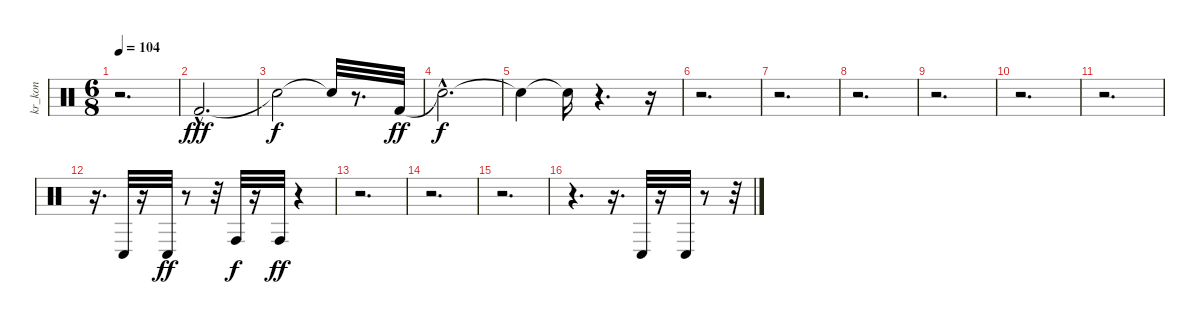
\track ("kr_kon" "kr_kon") {instrument percussion}
\staff {score}
\articulation defaults
\ts (6 8)
\tempo 104
\clef neutral
\ks c
r.2{d dy fff} |
"Kick (hit) 2"{hac}.2{d} |
"Snare (hit)"{t}.2{dy f} "Snare (hit)"{t}.32 r.8{d} "Kick (hit) 2".32{dy ff} |
"Snare (hit)"{hac t}.2{d dy f} |
"Snare (hit)"{t}.4 "Snare (hit)"{t}.16 r.4{d} r.16 |
r.2{d} |
r.2{d} |
r.2{d} |
r.2{d} |
r.2{d} |
r.2{d} |
r.16{d} "Conga low (hit)".32 r.16 "Conga low (hit)".32{dy ff} r.8 r.32 "Conga high (hit)".32{dy f} r.16 "Conga high (hit)".32{dy ff} r.4 |
r.2{d} |
r.2{d} |
r.2{d} |
r.4{d} r.16{d} "Conga low (hit)".32 r.16 "Conga low (hit)".32 r.8 r.32
